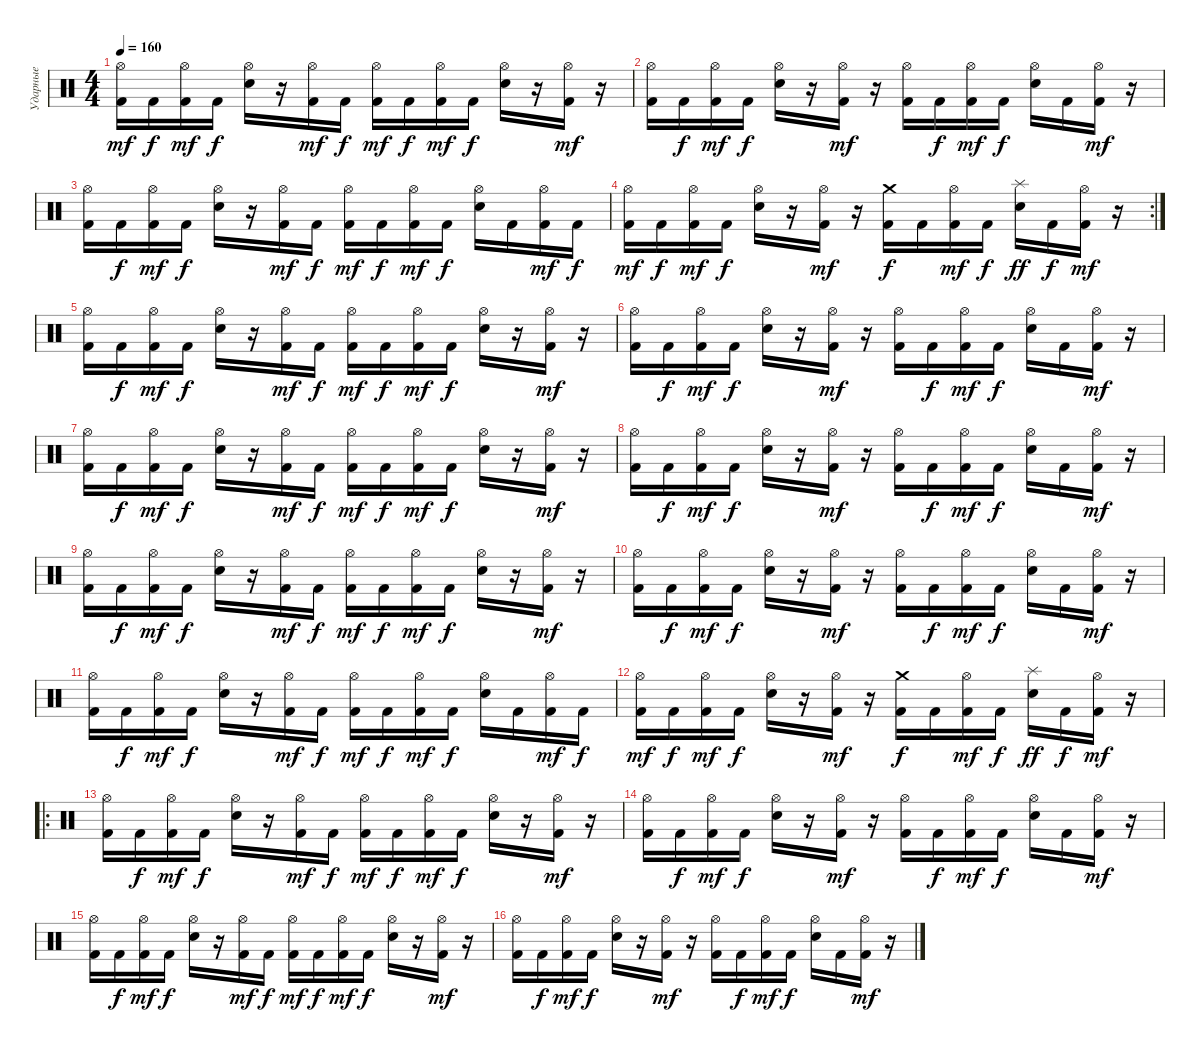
\track ("Ударные" "Ударные") {instrument percussion}
\staff {score}
\articulation defaults
\ts (4 4)
\tempo 160
\clef neutral
\ks c
("Hi-Hat (open)" "Kick (hit) 2").16{dy mf} "Kick (hit) 2".16{dy f} ("Hi-Hat (open)" "Kick (hit) 2").16{dy mf} "Kick (hit) 2".16{dy f} ("Hi-Hat (open)" "Electric Snare (hit)").16 r.16 ("Hi-Hat (open)" "Kick (hit) 2").16{dy mf} "Kick (hit) 2".16{dy f} ("Hi-Hat (open)" "Kick (hit) 2").16{dy mf} "Kick (hit) 2".16{dy f} ("Hi-Hat (open)" "Kick (hit) 2").16{dy mf} "Kick (hit) 2".16{dy f} ("Hi-Hat (open)" "Electric Snare (hit)").16 r.16 ("Hi-Hat (open)" "Kick (hit) 2").16{dy mf} r.16 |
("Hi-Hat (open)" "Kick (hit) 2").16 "Kick (hit) 2".16{dy f} ("Hi-Hat (open)" "Kick (hit) 2").16{dy mf} "Kick (hit) 2".16{dy f} ("Hi-Hat (open)" "Electric Snare (hit)").16 r.16 ("Hi-Hat (open)" "Kick (hit) 2").16{dy mf} r.16 ("Hi-Hat (open)" "Kick (hit) 2").16 "Kick (hit) 2".16{dy f} ("Hi-Hat (open)" "Kick (hit) 2").16{dy mf} "Kick (hit) 2".16{dy f} ("Hi-Hat (open)" "Electric Snare (hit)").16 "Kick (hit) 2".16 ("Hi-Hat (open)" "Kick (hit) 2").16{dy mf} r.16 |
("Hi-Hat (open)" "Kick (hit) 2").16 "Kick (hit) 2".16{dy f} ("Hi-Hat (open)" "Kick (hit) 2").16{dy mf} "Kick (hit) 2".16{dy f} ("Hi-Hat (open)" "Electric Snare (hit)").16 r.16 ("Hi-Hat (open)" "Kick (hit) 2").16{dy mf} "Kick (hit) 2".16{dy f} ("Hi-Hat (open)" "Kick (hit) 2").16{dy mf} "Kick (hit) 2".16{dy f} ("Hi-Hat (open)" "Kick (hit) 2").16{dy mf} "Kick (hit) 2".16{dy f} ("Hi-Hat (open)" "Electric Snare (hit)").16 "Kick (hit) 2".16 ("Hi-Hat (open)" "Kick (hit) 2").16{dy mf} "Kick (hit) 2".16{dy f} |
\rc 2
("Hi-Hat (open)" "Kick (hit) 2").16{dy mf} "Kick (hit) 2".16{dy f} ("Hi-Hat (open)" "Kick (hit) 2").16{dy mf} "Kick (hit) 2".16{dy f} ("Hi-Hat (open)" "Electric Snare (hit)").16 r.16 ("Hi-Hat (open)" "Kick (hit) 2").16{dy mf} r.16 ("Crash medium (hit)" "Kick (hit) 2").16{dy f} "Kick (hit) 2".16 ("Hi-Hat (open)" "Kick (hit) 2").16{dy mf} "Kick (hit) 2".16{dy f} ("Splash (hit)" "Electric Snare (hit)").16{dy ff} "Kick (hit) 2".16{dy f} ("Hi-Hat (open)" "Kick (hit) 2").16{dy mf} r.16 |
("Hi-Hat (open)" "Kick (hit) 2").16 "Kick (hit) 2".16{dy f} ("Hi-Hat (open)" "Kick (hit) 2").16{dy mf} "Kick (hit) 2".16{dy f} ("Hi-Hat (open)" "Electric Snare (hit)").16 r.16 ("Hi-Hat (open)" "Kick (hit) 2").16{dy mf} "Kick (hit) 2".16{dy f} ("Hi-Hat (open)" "Kick (hit) 2").16{dy mf} "Kick (hit) 2".16{dy f} ("Hi-Hat (open)" "Kick (hit) 2").16{dy mf} "Kick (hit) 2".16{dy f} ("Hi-Hat (open)" "Electric Snare (hit)").16 r.16 ("Hi-Hat (open)" "Kick (hit) 2").16{dy mf} r.16 |
("Hi-Hat (open)" "Kick (hit) 2").16 "Kick (hit) 2".16{dy f} ("Hi-Hat (open)" "Kick (hit) 2").16{dy mf} "Kick (hit) 2".16{dy f} ("Hi-Hat (open)" "Electric Snare (hit)").16 r.16 ("Hi-Hat (open)" "Kick (hit) 2").16{dy mf} r.16 ("Hi-Hat (open)" "Kick (hit) 2").16 "Kick (hit) 2".16{dy f} ("Hi-Hat (open)" "Kick (hit) 2").16{dy mf} "Kick (hit) 2".16{dy f} ("Hi-Hat (open)" "Electric Snare (hit)").16 "Kick (hit) 2".16 ("Hi-Hat (open)" "Kick (hit) 2").16{dy mf} r.16 |
("Hi-Hat (open)" "Kick (hit) 2").16 "Kick (hit) 2".16{dy f} ("Hi-Hat (open)" "Kick (hit) 2").16{dy mf} "Kick (hit) 2".16{dy f} ("Hi-Hat (open)" "Electric Snare (hit)").16 r.16 ("Hi-Hat (open)" "Kick (hit) 2").16{dy mf} "Kick (hit) 2".16{dy f} ("Hi-Hat (open)" "Kick (hit) 2").16{dy mf} "Kick (hit) 2".16{dy f} ("Hi-Hat (open)" "Kick (hit) 2").16{dy mf} "Kick (hit) 2".16{dy f} ("Hi-Hat (open)" "Electric Snare (hit)").16 r.16 ("Hi-Hat (open)" "Kick (hit) 2").16{dy mf} r.16 |
("Hi-Hat (open)" "Kick (hit) 2").16 "Kick (hit) 2".16{dy f} ("Hi-Hat (open)" "Kick (hit) 2").16{dy mf} "Kick (hit) 2".16{dy f} ("Hi-Hat (open)" "Electric Snare (hit)").16 r.16 ("Hi-Hat (open)" "Kick (hit) 2").16{dy mf} r.16 ("Hi-Hat (open)" "Kick (hit) 2").16 "Kick (hit) 2".16{dy f} ("Hi-Hat (open)" "Kick (hit) 2").16{dy mf} "Kick (hit) 2".16{dy f} ("Hi-Hat (open)" "Electric Snare (hit)").16 "Kick (hit) 2".16 ("Hi-Hat (open)" "Kick (hit) 2").16{dy mf} r.16 |
("Hi-Hat (open)" "Kick (hit) 2").16 "Kick (hit) 2".16{dy f} ("Hi-Hat (open)" "Kick (hit) 2").16{dy mf} "Kick (hit) 2".16{dy f} ("Hi-Hat (open)" "Electric Snare (hit)").16 r.16 ("Hi-Hat (open)" "Kick (hit) 2").16{dy mf} "Kick (hit) 2".16{dy f} ("Hi-Hat (open)" "Kick (hit) 2").16{dy mf} "Kick (hit) 2".16{dy f} ("Hi-Hat (open)" "Kick (hit) 2").16{dy mf} "Kick (hit) 2".16{dy f} ("Hi-Hat (open)" "Electric Snare (hit)").16 r.16 ("Hi-Hat (open)" "Kick (hit) 2").16{dy mf} r.16 |
("Hi-Hat (open)" "Kick (hit) 2").16 "Kick (hit) 2".16{dy f} ("Hi-Hat (open)" "Kick (hit) 2").16{dy mf} "Kick (hit) 2".16{dy f} ("Hi-Hat (open)" "Electric Snare (hit)").16 r.16 ("Hi-Hat (open)" "Kick (hit) 2").16{dy mf} r.16 ("Hi-Hat (open)" "Kick (hit) 2").16 "Kick (hit) 2".16{dy f} ("Hi-Hat (open)" "Kick (hit) 2").16{dy mf} "Kick (hit) 2".16{dy f} ("Hi-Hat (open)" "Electric Snare (hit)").16 "Kick (hit) 2".16 ("Hi-Hat (open)" "Kick (hit) 2").16{dy mf} r.16 |
("Hi-Hat (open)" "Kick (hit) 2").16 "Kick (hit) 2".16{dy f} ("Hi-Hat (open)" "Kick (hit) 2").16{dy mf} "Kick (hit) 2".16{dy f} ("Hi-Hat (open)" "Electric Snare (hit)").16 r.16 ("Hi-Hat (open)" "Kick (hit) 2").16{dy mf} "Kick (hit) 2".16{dy f} ("Hi-Hat (open)" "Kick (hit) 2").16{dy mf} "Kick (hit) 2".16{dy f} ("Hi-Hat (open)" "Kick (hit) 2").16{dy mf} "Kick (hit) 2".16{dy f} ("Hi-Hat (open)" "Electric Snare (hit)").16 "Kick (hit) 2".16 ("Hi-Hat (open)" "Kick (hit) 2").16{dy mf} "Kick (hit) 2".16{dy f} |
("Hi-Hat (open)" "Kick (hit) 2").16{dy mf} "Kick (hit) 2".16{dy f} ("Hi-Hat (open)" "Kick (hit) 2").16{dy mf} "Kick (hit) 2".16{dy f} ("Hi-Hat (open)" "Electric Snare (hit)").16 r.16 ("Hi-Hat (open)" "Kick (hit) 2").16{dy mf} r.16 ("Crash medium (hit)" "Kick (hit) 2").16{dy f} "Kick (hit) 2".16 ("Hi-Hat (open)" "Kick (hit) 2").16{dy mf} "Kick (hit) 2".16{dy f} ("Splash (hit)" "Electric Snare (hit)").16{dy ff} "Kick (hit) 2".16{dy f} ("Hi-Hat (open)" "Kick (hit) 2").16{dy mf} r.16 |
\ro
("Hi-Hat (open)" "Kick (hit) 2").16 "Kick (hit) 2".16{dy f} ("Hi-Hat (open)" "Kick (hit) 2").16{dy mf} "Kick (hit) 2".16{dy f} ("Hi-Hat (open)" "Electric Snare (hit)").16 r.16 ("Hi-Hat (open)" "Kick (hit) 2").16{dy mf} "Kick (hit) 2".16{dy f} ("Hi-Hat (open)" "Kick (hit) 2").16{dy mf} "Kick (hit) 2".16{dy f} ("Hi-Hat (open)" "Kick (hit) 2").16{dy mf} "Kick (hit) 2".16{dy f} ("Hi-Hat (open)" "Electric Snare (hit)").16 r.16 ("Hi-Hat (open)" "Kick (hit) 2").16{dy mf} r.16 |
("Hi-Hat (open)" "Kick (hit) 2").16 "Kick (hit) 2".16{dy f} ("Hi-Hat (open)" "Kick (hit) 2").16{dy mf} "Kick (hit) 2".16{dy f} ("Hi-Hat (open)" "Electric Snare (hit)").16 r.16 ("Hi-Hat (open)" "Kick (hit) 2").16{dy mf} r.16 ("Hi-Hat (open)" "Kick (hit) 2").16 "Kick (hit) 2".16{dy f} ("Hi-Hat (open)" "Kick (hit) 2").16{dy mf} "Kick (hit) 2".16{dy f} ("Hi-Hat (open)" "Electric Snare (hit)").16 "Kick (hit) 2".16 ("Hi-Hat (open)" "Kick (hit) 2").16{dy mf} r.16 |
("Hi-Hat (open)" "Kick (hit) 2").16 "Kick (hit) 2".16{dy f} ("Hi-Hat (open)" "Kick (hit) 2").16{dy mf} "Kick (hit) 2".16{dy f} ("Hi-Hat (open)" "Electric Snare (hit)").16 r.16 ("Hi-Hat (open)" "Kick (hit) 2").16{dy mf} "Kick (hit) 2".16{dy f} ("Hi-Hat (open)" "Kick (hit) 2").16{dy mf} "Kick (hit) 2".16{dy f} ("Hi-Hat (open)" "Kick (hit) 2").16{dy mf} "Kick (hit) 2".16{dy f} ("Hi-Hat (open)" "Electric Snare (hit)").16 r.16 ("Hi-Hat (open)" "Kick (hit) 2").16{dy mf} r.16 |
("Hi-Hat (open)" "Kick (hit) 2").16 "Kick (hit) 2".16{dy f} ("Hi-Hat (open)" "Kick (hit) 2").16{dy mf} "Kick (hit) 2".16{dy f} ("Hi-Hat (open)" "Electric Snare (hit)").16 r.16 ("Hi-Hat (open)" "Kick (hit) 2").16{dy mf} r.16 ("Hi-Hat (open)" "Kick (hit) 2").16 "Kick (hit) 2".16{dy f} ("Hi-Hat (open)" "Kick (hit) 2").16{dy mf} "Kick (hit) 2".16{dy f} ("Hi-Hat (open)" "Electric Snare (hit)").16 "Kick (hit) 2".16 ("Hi-Hat (open)" "Kick (hit) 2").16{dy mf} r.16
